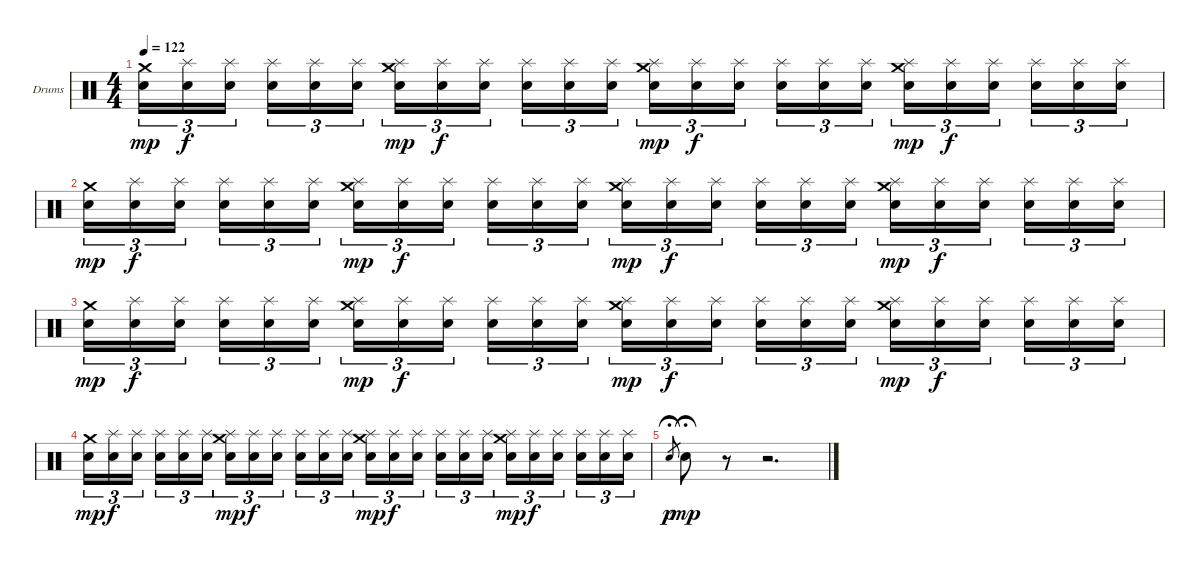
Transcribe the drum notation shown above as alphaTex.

\bracketExtendMode groupsimilarinstruments
\firstSystemTrackNameOrientation horizontal
\otherSystemsTrackNameOrientation horizontal
\track ("Drumkit" "Drums") {instrument percussion}
\staff {score}
\articulation defaults
\ts (4 4)
\tempo 122
\clef neutral
\ks c
("Crash medium (hit)" "Snare (hit) 2").16{tu (3 2) dy mp} ("Splash (hit)" "Snare (hit) 2").16{tu (3 2) dy f} ("Splash (hit)" "Snare (hit) 2").16{tu (3 2)} ("Splash (hit)" "Snare (hit) 2").16{tu (3 2)} ("Splash (hit)" "Snare (hit) 2").16{tu (3 2)} ("Splash (hit)" "Snare (hit) 2").16{tu (3 2)} ("Crash medium (hit)" "Splash (hit)" "Snare (hit) 2").16{tu (3 2) dy mp} ("Splash (hit)" "Snare (hit) 2").16{tu (3 2) dy f} ("Splash (hit)" "Snare (hit) 2").16{tu (3 2)} ("Splash (hit)" "Snare (hit) 2").16{tu (3 2)} ("Splash (hit)" "Snare (hit) 2").16{tu (3 2)} ("Splash (hit)" "Snare (hit) 2").16{tu (3 2)} ("Crash medium (hit)" "Splash (hit)" "Snare (hit) 2").16{tu (3 2) dy mp} ("Splash (hit)" "Snare (hit) 2").16{tu (3 2) dy f} ("Splash (hit)" "Snare (hit) 2").16{tu (3 2)} ("Splash (hit)" "Snare (hit) 2").16{tu (3 2)} ("Splash (hit)" "Snare (hit) 2").16{tu (3 2)} ("Splash (hit)" "Snare (hit) 2").16{tu (3 2)} ("Crash medium (hit)" "Splash (hit)" "Snare (hit) 2").16{tu (3 2) dy mp} ("Splash (hit)" "Snare (hit) 2").16{tu (3 2) dy f} ("Splash (hit)" "Snare (hit) 2").16{tu (3 2)} ("Splash (hit)" "Snare (hit) 2").16{tu (3 2)} ("Splash (hit)" "Snare (hit) 2").16{tu (3 2)} ("Splash (hit)" "Snare (hit) 2").16{tu (3 2)} |
("Crash medium (hit)" "Snare (hit) 2").16{tu (3 2) dy mp} ("Splash (hit)" "Snare (hit) 2").16{tu (3 2) dy f} ("Splash (hit)" "Snare (hit) 2").16{tu (3 2)} ("Splash (hit)" "Snare (hit) 2").16{tu (3 2)} ("Splash (hit)" "Snare (hit) 2").16{tu (3 2)} ("Splash (hit)" "Snare (hit) 2").16{tu (3 2)} ("Crash medium (hit)" "Splash (hit)" "Snare (hit) 2").16{tu (3 2) dy mp} ("Splash (hit)" "Snare (hit) 2").16{tu (3 2) dy f} ("Splash (hit)" "Snare (hit) 2").16{tu (3 2)} ("Splash (hit)" "Snare (hit) 2").16{tu (3 2)} ("Splash (hit)" "Snare (hit) 2").16{tu (3 2)} ("Splash (hit)" "Snare (hit) 2").16{tu (3 2)} ("Crash medium (hit)" "Splash (hit)" "Snare (hit) 2").16{tu (3 2) dy mp} ("Splash (hit)" "Snare (hit) 2").16{tu (3 2) dy f} ("Splash (hit)" "Snare (hit) 2").16{tu (3 2)} ("Splash (hit)" "Snare (hit) 2").16{tu (3 2)} ("Splash (hit)" "Snare (hit) 2").16{tu (3 2)} ("Splash (hit)" "Snare (hit) 2").16{tu (3 2)} ("Crash medium (hit)" "Splash (hit)" "Snare (hit) 2").16{tu (3 2) dy mp} ("Splash (hit)" "Snare (hit) 2").16{tu (3 2) dy f} ("Splash (hit)" "Snare (hit) 2").16{tu (3 2)} ("Splash (hit)" "Snare (hit) 2").16{tu (3 2)} ("Splash (hit)" "Snare (hit) 2").16{tu (3 2)} ("Splash (hit)" "Snare (hit) 2").16{tu (3 2)} |
("Crash medium (hit)" "Snare (hit) 2").16{tu (3 2) dy mp} ("Splash (hit)" "Snare (hit) 2").16{tu (3 2) dy f} ("Splash (hit)" "Snare (hit) 2").16{tu (3 2)} ("Splash (hit)" "Snare (hit) 2").16{tu (3 2)} ("Splash (hit)" "Snare (hit) 2").16{tu (3 2)} ("Splash (hit)" "Snare (hit) 2").16{tu (3 2)} ("Crash medium (hit)" "Splash (hit)" "Snare (hit) 2").16{tu (3 2) dy mp} ("Splash (hit)" "Snare (hit) 2").16{tu (3 2) dy f} ("Splash (hit)" "Snare (hit) 2").16{tu (3 2)} ("Splash (hit)" "Snare (hit) 2").16{tu (3 2)} ("Splash (hit)" "Snare (hit) 2").16{tu (3 2)} ("Splash (hit)" "Snare (hit) 2").16{tu (3 2)} ("Crash medium (hit)" "Splash (hit)" "Snare (hit) 2").16{tu (3 2) dy mp} ("Splash (hit)" "Snare (hit) 2").16{tu (3 2) dy f} ("Splash (hit)" "Snare (hit) 2").16{tu (3 2)} ("Splash (hit)" "Snare (hit) 2").16{tu (3 2)} ("Splash (hit)" "Snare (hit) 2").16{tu (3 2)} ("Splash (hit)" "Snare (hit) 2").16{tu (3 2)} ("Crash medium (hit)" "Splash (hit)" "Snare (hit) 2").16{tu (3 2) dy mp} ("Splash (hit)" "Snare (hit) 2").16{tu (3 2) dy f} ("Splash (hit)" "Snare (hit) 2").16{tu (3 2)} ("Splash (hit)" "Snare (hit) 2").16{tu (3 2)} ("Splash (hit)" "Snare (hit) 2").16{tu (3 2)} ("Splash (hit)" "Snare (hit) 2").16{tu (3 2)} |
("Crash medium (hit)" "Snare (hit) 2").16{tu (3 2) dy mp} ("Splash (hit)" "Snare (hit) 2").16{tu (3 2) dy f} ("Splash (hit)" "Snare (hit) 2").16{tu (3 2)} ("Splash (hit)" "Snare (hit) 2").16{tu (3 2)} ("Splash (hit)" "Snare (hit) 2").16{tu (3 2)} ("Splash (hit)" "Snare (hit) 2").16{tu (3 2)} ("Crash medium (hit)" "Splash (hit)" "Snare (hit) 2").16{tu (3 2) dy mp} ("Splash (hit)" "Snare (hit) 2").16{tu (3 2) dy f} ("Splash (hit)" "Snare (hit) 2").16{tu (3 2)} ("Splash (hit)" "Snare (hit) 2").16{tu (3 2)} ("Splash (hit)" "Snare (hit) 2").16{tu (3 2)} ("Splash (hit)" "Snare (hit) 2").16{tu (3 2)} ("Crash medium (hit)" "Splash (hit)" "Snare (hit) 2").16{tu (3 2) dy mp} ("Splash (hit)" "Snare (hit) 2").16{tu (3 2) dy f} ("Splash (hit)" "Snare (hit) 2").16{tu (3 2)} ("Splash (hit)" "Snare (hit) 2").16{tu (3 2)} ("Splash (hit)" "Snare (hit) 2").16{tu (3 2)} ("Splash (hit)" "Snare (hit) 2").16{tu (3 2)} ("Crash medium (hit)" "Splash (hit)" "Snare (hit) 2").16{tu (3 2) dy mp} ("Splash (hit)" "Snare (hit) 2").16{tu (3 2) dy f} ("Splash (hit)" "Snare (hit) 2").16{tu (3 2)} ("Splash (hit)" "Snare (hit) 2").16{tu (3 2)} ("Splash (hit)" "Snare (hit) 2").16{tu (3 2)} ("Splash (hit)" "Snare (hit) 2").16{tu (3 2)} |
"Snare (hit) 2".8{gr dy p fermata (medium 0.5)} "Snare (hit) 2".8{dy mp fermata (medium 0.5)} r.8 r.2{d}
